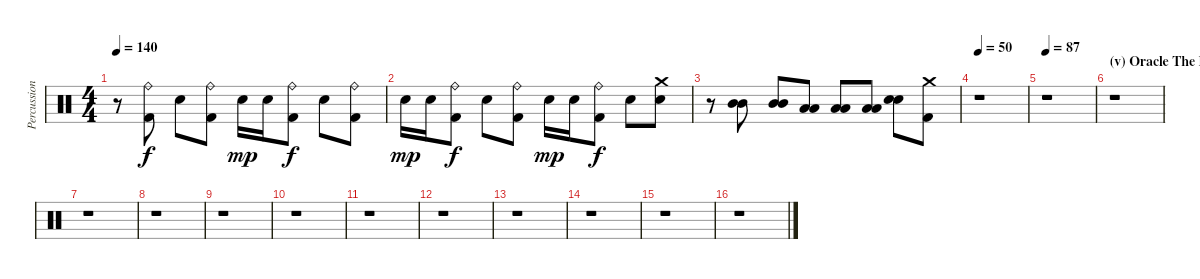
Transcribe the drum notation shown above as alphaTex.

\track ("Percussion" "Percussion") {instrument percussion}
\staff {score}
\articulation defaults
\ts (4 4)
\tempo 140
\clef neutral
\ks c
r.8{dy f} ("Kick (hit) 2" "Ride (bell)").8 "Electric Snare (hit)".8 ("Kick (hit) 2" "Ride (bell)").8 "Electric Snare (hit)".16{dy mp} "Electric Snare (hit)".16 ("Kick (hit) 2" "Ride (bell)").8{dy f} "Electric Snare (hit)".8 ("Kick (hit) 2" "Ride (bell)").8 |
"Electric Snare (hit)".16{dy mp} "Electric Snare (hit)".16 ("Kick (hit) 2" "Ride (bell)").8{dy f} "Electric Snare (hit)".8 ("Kick (hit) 2" "Ride (bell)").8 "Electric Snare (hit)".16{dy mp} "Electric Snare (hit)".16 ("Kick (hit) 2" "Ride (bell)").8{dy f} "Electric Snare (hit)".8 ("Electric Snare (hit)" "Crash medium (hit)").8 |
r.8 ("Mid Tom (hit)" "Mid Tom (hit)").8 ("Mid Tom (hit)" "Mid Tom (hit)").8 ("Low Tom (hit)" "Low Tom (hit)").8 ("Low Tom (hit)" "Low Tom (hit)").8 ("Low Floor Tom (hit)" "Low Floor Tom (hit)").8 ("Electric Snare (hit)" "Electric Snare (hit)").8 ("Kick (hit) 2" "Crash medium (hit)").8 |
\tempo 50
r.1 |
\tempo 87
r.1 |
\section ("" "(v) Oracle The Dream")
r.1 |
r.1 |
r.1 |
r.1 |
r.1 |
r.1 |
r.1 |
r.1 |
r.1 |
r.1 |
r.1
